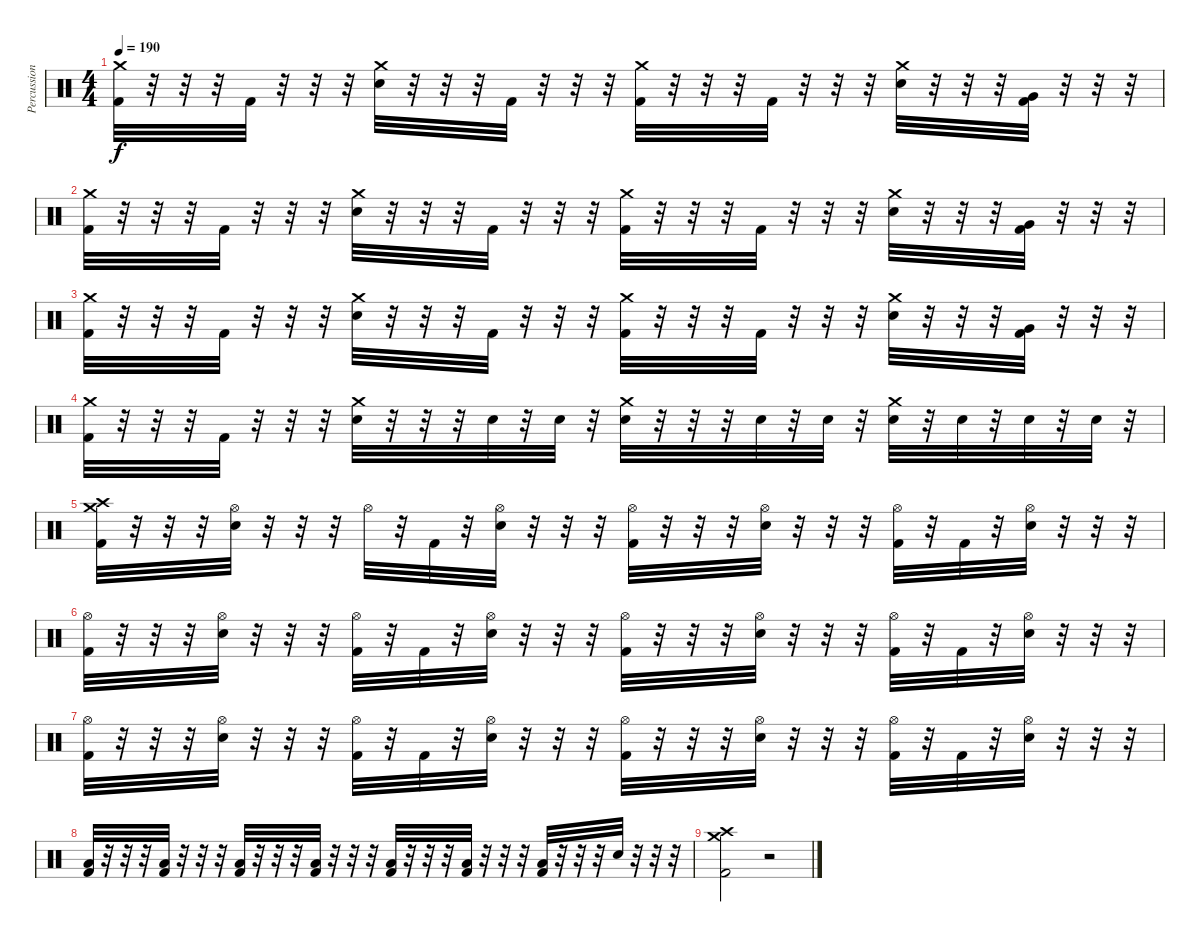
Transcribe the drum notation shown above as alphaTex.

\track ("Percussion" "Percussion") {instrument percussion}
\staff {score}
\articulation defaults
\ts (4 4)
\tempo 190
\clef neutral
\ks c
("Crash medium (hit)" "Kick (hit) 2").32{dy f} r.32 r.32 r.32 "Kick (hit) 2".32 r.32 r.32 r.32 ("Crash medium (hit)" "Electric Snare (hit)").32 r.32 r.32 r.32 "Kick (hit) 2".32 r.32 r.32 r.32 ("Crash medium (hit)" "Kick (hit) 2").32 r.32 r.32 r.32 "Kick (hit) 2".32 r.32 r.32 r.32 ("Crash medium (hit)" "Electric Snare (hit)").32 r.32 r.32 r.32 ("Very Low Tom (hit)" "Kick (hit) 2").32 r.32 r.32 r.32 |
("Crash medium (hit)" "Kick (hit) 2").32 r.32 r.32 r.32 "Kick (hit) 2".32 r.32 r.32 r.32 ("Crash medium (hit)" "Electric Snare (hit)").32 r.32 r.32 r.32 "Kick (hit) 2".32 r.32 r.32 r.32 ("Crash medium (hit)" "Kick (hit) 2").32 r.32 r.32 r.32 "Kick (hit) 2".32 r.32 r.32 r.32 ("Crash medium (hit)" "Electric Snare (hit)").32 r.32 r.32 r.32 ("Very Low Tom (hit)" "Kick (hit) 2").32 r.32 r.32 r.32 |
("Crash medium (hit)" "Kick (hit) 2").32 r.32 r.32 r.32 "Kick (hit) 2".32 r.32 r.32 r.32 ("Crash medium (hit)" "Electric Snare (hit)").32 r.32 r.32 r.32 "Kick (hit) 2".32 r.32 r.32 r.32 ("Crash medium (hit)" "Kick (hit) 2").32 r.32 r.32 r.32 "Kick (hit) 2".32 r.32 r.32 r.32 ("Crash medium (hit)" "Electric Snare (hit)").32 r.32 r.32 r.32 ("Very Low Tom (hit)" "Kick (hit) 2").32 r.32 r.32 r.32 |
("Crash medium (hit)" "Kick (hit) 2").32 r.32 r.32 r.32 "Kick (hit) 2".32 r.32 r.32 r.32 ("Crash medium (hit)" "Electric Snare (hit)").32 r.32 r.32 r.32 "Electric Snare (hit)".32 r.32 "Electric Snare (hit)".32 r.32 ("Crash medium (hit)" "Electric Snare (hit)").32 r.32 r.32 r.32 "Electric Snare (hit)".32 r.32 "Electric Snare (hit)".32 r.32 ("Crash medium (hit)" "Electric Snare (hit)").32 r.32 "Electric Snare (hit)".32 r.32 "Electric Snare (hit)".32 r.32 "Electric Snare (hit)".32 r.32 |
("Crash high (hit)" "Crash medium (hit)" "Kick (hit) 2").32 r.32 r.32 r.32 ("Hi-Hat (open)" "Electric Snare (hit)").32 r.32 r.32 r.32 "Hi-Hat (open)".32 r.32 "Kick (hit) 2".32 r.32 ("Hi-Hat (open)" "Electric Snare (hit)").32 r.32 r.32 r.32 ("Hi-Hat (open)" "Kick (hit) 2").32 r.32 r.32 r.32 ("Hi-Hat (open)" "Electric Snare (hit)").32 r.32 r.32 r.32 ("Hi-Hat (open)" "Kick (hit) 2").32 r.32 "Kick (hit) 2".32 r.32 ("Hi-Hat (open)" "Electric Snare (hit)").32 r.32 r.32 r.32 |
("Hi-Hat (open)" "Kick (hit) 2").32 r.32 r.32 r.32 ("Hi-Hat (open)" "Electric Snare (hit)").32 r.32 r.32 r.32 ("Hi-Hat (open)" "Kick (hit) 2").32 r.32 "Kick (hit) 2".32 r.32 ("Hi-Hat (open)" "Electric Snare (hit)").32 r.32 r.32 r.32 ("Hi-Hat (open)" "Kick (hit) 2").32 r.32 r.32 r.32 ("Hi-Hat (open)" "Electric Snare (hit)").32 r.32 r.32 r.32 ("Hi-Hat (open)" "Kick (hit) 2").32 r.32 "Kick (hit) 2".32 r.32 ("Hi-Hat (open)" "Electric Snare (hit)").32 r.32 r.32 r.32 |
("Hi-Hat (open)" "Kick (hit) 2").32 r.32 r.32 r.32 ("Hi-Hat (open)" "Electric Snare (hit)").32 r.32 r.32 r.32 ("Hi-Hat (open)" "Kick (hit) 2").32 r.32 "Kick (hit) 2".32 r.32 ("Hi-Hat (open)" "Electric Snare (hit)").32 r.32 r.32 r.32 ("Hi-Hat (open)" "Kick (hit) 2").32 r.32 r.32 r.32 ("Hi-Hat (open)" "Electric Snare (hit)").32 r.32 r.32 r.32 ("Hi-Hat (open)" "Kick (hit) 2").32 r.32 "Kick (hit) 2".32 r.32 ("Hi-Hat (open)" "Electric Snare (hit)").32 r.32 r.32 r.32 |
("Low Floor Tom (hit)" "Kick (hit) 2").32 r.32 r.32 r.32 ("Low Floor Tom (hit)" "Kick (hit) 2").32 r.32 r.32 r.32 ("Low Floor Tom (hit)" "Kick (hit) 2").32 r.32 r.32 r.32 ("Low Floor Tom (hit)" "Kick (hit) 2").32 r.32 r.32 r.32 ("Low Floor Tom (hit)" "Kick (hit) 2").32 r.32 r.32 r.32 ("Low Floor Tom (hit)" "Kick (hit) 2").32 r.32 r.32 r.32 ("Low Floor Tom (hit)" "Kick (hit) 2").32 r.32 r.32 r.32 "Electric Snare (hit)".32 r.32 r.32 r.32 |
("Crash high (hit)" "Crash medium (hit)" "Kick (hit) 2").2 r.2
